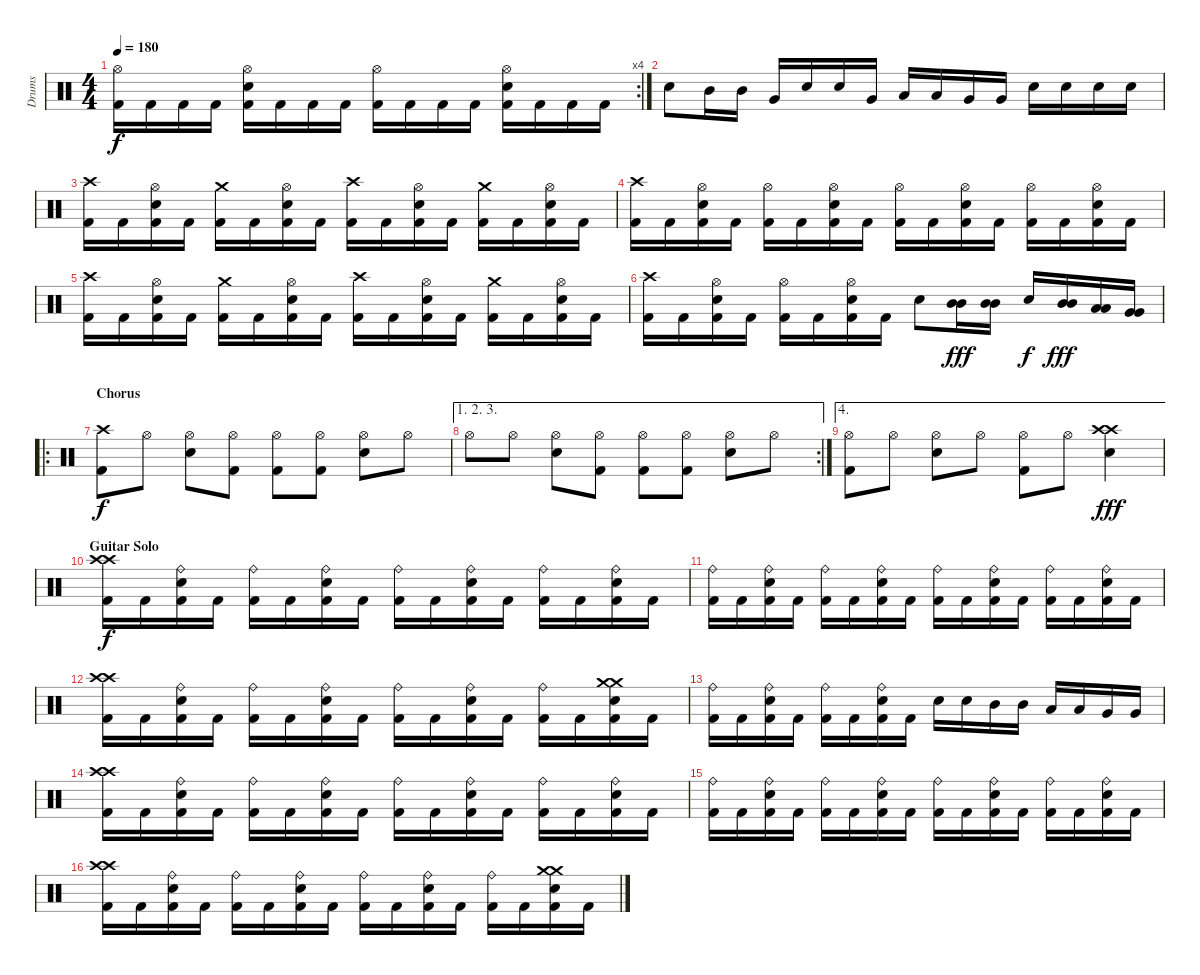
\track ("Drums" "Drums") {instrument percussion}
\staff {score}
\articulation defaults
\rc 4
\ts (4 4)
\tempo 180
\clef neutral
\ks c
("Hi-Hat (open)" "Kick (hit) 2").16{dy f} "Kick (hit) 2".16 "Kick (hit) 2".16 "Kick (hit) 2".16 ("Hi-Hat (open)" "Snare (hit) 2" "Kick (hit) 2").16 "Kick (hit) 2".16 "Kick (hit) 2".16 "Kick (hit) 2".16 ("Hi-Hat (open)" "Kick (hit) 2").16 "Kick (hit) 2".16 "Kick (hit) 2".16 "Kick (hit) 2".16 ("Hi-Hat (open)" "Snare (hit) 2" "Kick (hit) 2").16 "Kick (hit) 2".16 "Kick (hit) 2".16 "Kick (hit) 2".16 |
"Snare (hit) 2".8 "Mid Tom (hit)".16 "Mid Tom (hit)".16 "Very Low Tom (hit)".16 "Snare (hit) 2".16 "Snare (hit) 2".16 "Very Low Tom (hit)".16 "Low Tom (hit)".16 "Low Tom (hit)".16 "Very Low Tom (hit)".16 "Very Low Tom (hit)".16 "Snare (hit) 2".16 "Snare (hit) 2".16 "Snare (hit) 2".16 "Snare (hit) 2".16 |
("Crash high (hit)" "Kick (hit) 2").16 "Kick (hit) 2".16 ("Hi-Hat (open)" "Snare (hit) 2" "Kick (hit) 2").16 "Kick (hit) 2".16 ("Crash medium (hit)" "Kick (hit) 2").16 "Kick (hit) 2".16 ("Hi-Hat (open)" "Snare (hit) 2" "Kick (hit) 2").16 "Kick (hit) 2".16 ("Crash high (hit)" "Kick (hit) 2").16 "Kick (hit) 2".16 ("Hi-Hat (open)" "Snare (hit) 2" "Kick (hit) 2").16 "Kick (hit) 2".16 ("Crash medium (hit)" "Kick (hit) 2").16 "Kick (hit) 2".16 ("Hi-Hat (open)" "Snare (hit) 2" "Kick (hit) 2").16 "Kick (hit) 2".16 |
("Crash high (hit)" "Kick (hit) 2").16 "Kick (hit) 2".16 ("Hi-Hat (open)" "Snare (hit) 2" "Kick (hit) 2").16 "Kick (hit) 2".16 ("Hi-Hat (open)" "Kick (hit) 2").16 "Kick (hit) 2".16 ("Hi-Hat (open)" "Snare (hit) 2" "Kick (hit) 2").16 "Kick (hit) 2".16 ("Hi-Hat (open)" "Kick (hit) 2").16 "Kick (hit) 2".16 ("Hi-Hat (open)" "Snare (hit) 2" "Kick (hit) 2").16 "Kick (hit) 2".16 ("Hi-Hat (open)" "Kick (hit) 2").16 "Kick (hit) 2".16 ("Hi-Hat (open)" "Snare (hit) 2" "Kick (hit) 2").16 "Kick (hit) 2".16 |
("Crash high (hit)" "Kick (hit) 2").16 "Kick (hit) 2".16 ("Hi-Hat (open)" "Snare (hit) 2" "Kick (hit) 2").16 "Kick (hit) 2".16 ("Crash medium (hit)" "Kick (hit) 2").16 "Kick (hit) 2".16 ("Hi-Hat (open)" "Snare (hit) 2" "Kick (hit) 2").16 "Kick (hit) 2".16 ("Crash high (hit)" "Kick (hit) 2").16 "Kick (hit) 2".16 ("Hi-Hat (open)" "Snare (hit) 2" "Kick (hit) 2").16 "Kick (hit) 2".16 ("Crash medium (hit)" "Kick (hit) 2").16 "Kick (hit) 2".16 ("Hi-Hat (open)" "Snare (hit) 2" "Kick (hit) 2").16 "Kick (hit) 2".16 |
("Crash high (hit)" "Kick (hit) 2").16 "Kick (hit) 2".16 ("Hi-Hat (open)" "Snare (hit) 2" "Kick (hit) 2").16 "Kick (hit) 2".16 ("Hi-Hat (open)" "Kick (hit) 2").16 "Kick (hit) 2".16 ("Hi-Hat (open)" "Snare (hit) 2" "Kick (hit) 2").16 "Kick (hit) 2".16 "Snare (hit) 2".8 ("Mid Tom (hit)" "Mid Tom (hit)").16{dy fff} ("Mid Tom (hit)" "Mid Tom (hit)").16 "Snare (hit) 2".16{dy f} ("Mid Tom (hit)" "Mid Tom (hit)").16{dy fff} ("Low Tom (hit)" "Low Tom (hit)").16 ("Very Low Tom (hit)" "Very Low Tom (hit)").16 |
\ro
\section ("" "Chorus")
("Crash high (hit)" "Kick (hit) 2").8{dy f} "Hi-Hat (open)".8 ("Hi-Hat (open)" "Snare (hit) 2").8 ("Hi-Hat (open)" "Kick (hit) 2").8 ("Hi-Hat (open)" "Kick (hit) 2").8 ("Hi-Hat (open)" "Kick (hit) 2").8 ("Hi-Hat (open)" "Snare (hit) 2").8 "Hi-Hat (open)".8 |
\ae (1 2 3)
\rc 2 "Hi-Hat (open)".8 "Hi-Hat (open)".8
("Hi-Hat (open)" "Snare (hit) 2").8 ("Hi-Hat (open)" "Kick (hit) 2").8 ("Hi-Hat (open)" "Kick (hit) 2").8 ("Hi-Hat (open)" "Kick (hit) 2").8 ("Hi-Hat (open)" "Snare (hit) 2").8 "Hi-Hat (open)".8 |
\ae 4
("Hi-Hat (open)" "Kick (hit) 2").8 "Hi-Hat (open)".8 ("Hi-Hat (open)" "Snare (hit) 2").8 "Hi-Hat (open)".8 ("Hi-Hat (open)" "Kick (hit) 2").8 "Hi-Hat (open)".8 ("Crash high (hit)" "Crash high (hit)" "Snare (hit) 2").4{dy fff} |
\section ("" "Guitar Solo")
("Crash high (hit)" "Crash high (hit)" "Kick (hit) 2").16{dy f} "Kick (hit) 2".16 ("Ride (bell)" "Snare (hit) 2" "Kick (hit) 2").16 "Kick (hit) 2".16 ("Ride (bell)" "Kick (hit) 2").16 "Kick (hit) 2".16 ("Ride (bell)" "Snare (hit) 2" "Kick (hit) 2").16 "Kick (hit) 2".16 ("Ride (bell)" "Kick (hit) 2").16 "Kick (hit) 2".16 ("Ride (bell)" "Snare (hit) 2" "Kick (hit) 2").16 "Kick (hit) 2".16 ("Ride (bell)" "Kick (hit) 2").16 "Kick (hit) 2".16 ("Ride (bell)" "Snare (hit) 2" "Kick (hit) 2").16 "Kick (hit) 2".16 |
("Ride (bell)" "Kick (hit) 2").16 "Kick (hit) 2".16 ("Ride (bell)" "Snare (hit) 2" "Kick (hit) 2").16 "Kick (hit) 2".16 ("Ride (bell)" "Kick (hit) 2").16 "Kick (hit) 2".16 ("Ride (bell)" "Snare (hit) 2" "Kick (hit) 2").16 "Kick (hit) 2".16 ("Ride (bell)" "Kick (hit) 2").16 "Kick (hit) 2".16 ("Ride (bell)" "Snare (hit) 2" "Kick (hit) 2").16 "Kick (hit) 2".16 ("Ride (bell)" "Kick (hit) 2").16 "Kick (hit) 2".16 ("Ride (bell)" "Snare (hit) 2" "Kick (hit) 2").16 "Kick (hit) 2".16 |
("Crash high (hit)" "Crash high (hit)" "Kick (hit) 2").16 "Kick (hit) 2".16 ("Ride (bell)" "Snare (hit) 2" "Kick (hit) 2").16 "Kick (hit) 2".16 ("Ride (bell)" "Kick (hit) 2").16 "Kick (hit) 2".16 ("Ride (bell)" "Snare (hit) 2" "Kick (hit) 2").16 "Kick (hit) 2".16 ("Ride (bell)" "Kick (hit) 2").16 "Kick (hit) 2".16 ("Ride (bell)" "Snare (hit) 2" "Kick (hit) 2").16 "Kick (hit) 2".16 ("Ride (bell)" "Kick (hit) 2").16 "Kick (hit) 2".16 ("Crash medium (hit)" "Crash medium (hit)" "Snare (hit) 2" "Kick (hit) 2").16 "Kick (hit) 2".16 |
("Ride (bell)" "Kick (hit) 2").16 "Kick (hit) 2".16 ("Ride (bell)" "Snare (hit) 2" "Kick (hit) 2").16 "Kick (hit) 2".16 ("Ride (bell)" "Kick (hit) 2").16 "Kick (hit) 2".16 ("Ride (bell)" "Snare (hit) 2" "Kick (hit) 2").16 "Kick (hit) 2".16 "Snare (hit) 2".16 "Snare (hit) 2".16 "Mid Tom (hit)".16 "Mid Tom (hit)".16 "Low Tom (hit)".16 "Low Tom (hit)".16 "Very Low Tom (hit)".16 "Very Low Tom (hit)".16 |
("Crash high (hit)" "Crash high (hit)" "Kick (hit) 2").16 "Kick (hit) 2".16 ("Ride (bell)" "Snare (hit) 2" "Kick (hit) 2").16 "Kick (hit) 2".16 ("Ride (bell)" "Kick (hit) 2").16 "Kick (hit) 2".16 ("Ride (bell)" "Snare (hit) 2" "Kick (hit) 2").16 "Kick (hit) 2".16 ("Ride (bell)" "Kick (hit) 2").16 "Kick (hit) 2".16 ("Ride (bell)" "Snare (hit) 2" "Kick (hit) 2").16 "Kick (hit) 2".16 ("Ride (bell)" "Kick (hit) 2").16 "Kick (hit) 2".16 ("Ride (bell)" "Snare (hit) 2" "Kick (hit) 2").16 "Kick (hit) 2".16 |
("Ride (bell)" "Kick (hit) 2").16 "Kick (hit) 2".16 ("Ride (bell)" "Snare (hit) 2" "Kick (hit) 2").16 "Kick (hit) 2".16 ("Ride (bell)" "Kick (hit) 2").16 "Kick (hit) 2".16 ("Ride (bell)" "Snare (hit) 2" "Kick (hit) 2").16 "Kick (hit) 2".16 ("Ride (bell)" "Kick (hit) 2").16 "Kick (hit) 2".16 ("Ride (bell)" "Snare (hit) 2" "Kick (hit) 2").16 "Kick (hit) 2".16 ("Ride (bell)" "Kick (hit) 2").16 "Kick (hit) 2".16 ("Ride (bell)" "Snare (hit) 2" "Kick (hit) 2").16 "Kick (hit) 2".16 |
("Crash high (hit)" "Crash high (hit)" "Kick (hit) 2").16 "Kick (hit) 2".16 ("Ride (bell)" "Snare (hit) 2" "Kick (hit) 2").16 "Kick (hit) 2".16 ("Ride (bell)" "Kick (hit) 2").16 "Kick (hit) 2".16 ("Ride (bell)" "Snare (hit) 2" "Kick (hit) 2").16 "Kick (hit) 2".16 ("Ride (bell)" "Kick (hit) 2").16 "Kick (hit) 2".16 ("Ride (bell)" "Snare (hit) 2" "Kick (hit) 2").16 "Kick (hit) 2".16 ("Ride (bell)" "Kick (hit) 2").16 "Kick (hit) 2".16 ("Crash medium (hit)" "Crash medium (hit)" "Snare (hit) 2" "Kick (hit) 2").16 "Kick (hit) 2".16
